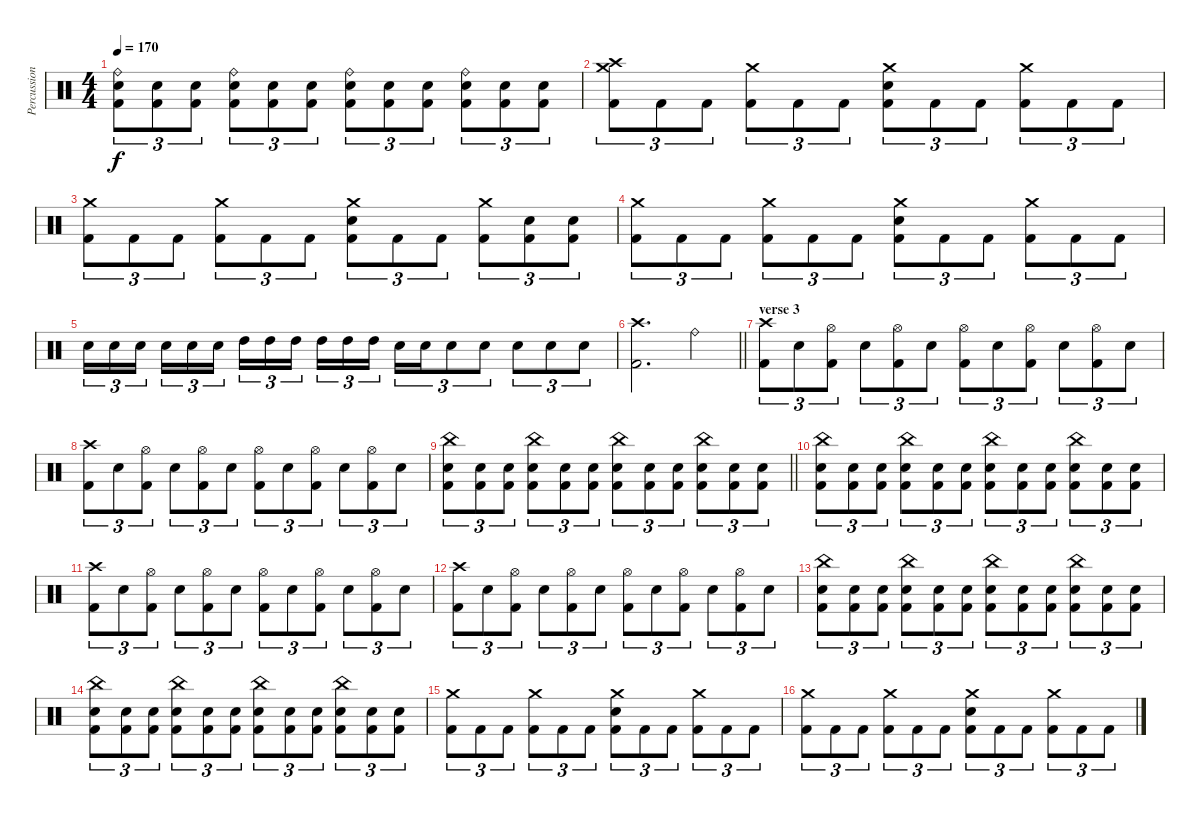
\track ("Percussion" "Percussion") {instrument percussion}
\staff {score}
\articulation defaults
\ts (4 4)
\tempo 170
\clef neutral
\ks c
("Ride (bell)" "Electric Snare (hit)" "Kick (hit) 2").8{tu (3 2) dy f} ("Electric Snare (hit)" "Kick (hit) 2").8{tu (3 2)} ("Electric Snare (hit)" "Kick (hit) 2").8{tu (3 2)} ("Ride (bell)" "Electric Snare (hit)" "Kick (hit) 2").8{tu (3 2)} ("Electric Snare (hit)" "Kick (hit) 2").8{tu (3 2)} ("Electric Snare (hit)" "Kick (hit) 2").8{tu (3 2)} ("Ride (bell)" "Electric Snare (hit)" "Kick (hit) 2").8{tu (3 2)} ("Electric Snare (hit)" "Kick (hit) 2").8{tu (3 2)} ("Electric Snare (hit)" "Kick (hit) 2").8{tu (3 2)} ("Ride (bell)" "Electric Snare (hit)" "Kick (hit) 2").8{tu (3 2)} ("Electric Snare (hit)" "Kick (hit) 2").8{tu (3 2)} ("Electric Snare (hit)" "Kick (hit) 2").8{tu (3 2)} |
("Crash high (hit)" "Crash medium (hit)" "Kick (hit) 2").8{tu (3 2)} "Kick (hit) 2".8{tu (3 2)} "Kick (hit) 2".8{tu (3 2)} ("Crash medium (hit)" "Kick (hit) 2").8{tu (3 2)} "Kick (hit) 2".8{tu (3 2)} "Kick (hit) 2".8{tu (3 2)} ("Crash medium (hit)" "Electric Snare (hit)" "Kick (hit) 2").8{tu (3 2)} "Kick (hit) 2".8{tu (3 2)} "Kick (hit) 2".8{tu (3 2)} ("Crash medium (hit)" "Kick (hit) 2").8{tu (3 2)} "Kick (hit) 2".8{tu (3 2)} "Kick (hit) 2".8{tu (3 2)} |
("Crash medium (hit)" "Kick (hit) 2").8{tu (3 2)} "Kick (hit) 2".8{tu (3 2)} "Kick (hit) 2".8{tu (3 2)} ("Crash medium (hit)" "Kick (hit) 2").8{tu (3 2)} "Kick (hit) 2".8{tu (3 2)} "Kick (hit) 2".8{tu (3 2)} ("Crash medium (hit)" "Electric Snare (hit)" "Kick (hit) 2").8{tu (3 2)} "Kick (hit) 2".8{tu (3 2)} "Kick (hit) 2".8{tu (3 2)} ("Crash medium (hit)" "Kick (hit) 2").8{tu (3 2)} ("Electric Snare (hit)" "Kick (hit) 2").8{tu (3 2)} ("Electric Snare (hit)" "Kick (hit) 2").8{tu (3 2)} |
("Crash medium (hit)" "Kick (hit) 2").8{tu (3 2)} "Kick (hit) 2".8{tu (3 2)} "Kick (hit) 2".8{tu (3 2)} ("Crash medium (hit)" "Kick (hit) 2").8{tu (3 2)} "Kick (hit) 2".8{tu (3 2)} "Kick (hit) 2".8{tu (3 2)} ("Crash medium (hit)" "Electric Snare (hit)" "Kick (hit) 2").8{tu (3 2)} "Kick (hit) 2".8{tu (3 2)} "Kick (hit) 2".8{tu (3 2)} ("Crash medium (hit)" "Kick (hit) 2").8{tu (3 2)} "Kick (hit) 2".8{tu (3 2)} "Kick (hit) 2".8{tu (3 2)} |
"Electric Snare (hit)".16{tu (3 2)} "Electric Snare (hit)".16{tu (3 2)} "Electric Snare (hit)".16{tu (3 2) beam splitsecondary} "Electric Snare (hit)".16{tu (3 2)} "Electric Snare (hit)".16{tu (3 2)} "Electric Snare (hit)".16{tu (3 2)} "High Tom (hit)".16{tu (3 2)} "High Tom (hit)".16{tu (3 2)} "High Tom (hit)".16{tu (3 2) beam splitsecondary} "High Tom (hit)".16{tu (3 2)} "High Tom (hit)".16{tu (3 2)} "High Tom (hit)".16{tu (3 2)} "Electric Snare (hit)".16{tu (3 2)} "Electric Snare (hit)".16{tu (3 2)} "Electric Snare (hit)".8{tu (3 2)} "Electric Snare (hit)".8{tu (3 2)} "Electric Snare (hit)".8{tu (3 2)} "Electric Snare (hit)".8{tu (3 2)} "Electric Snare (hit)".8{tu (3 2)} |
\barLineRight lightlight
("Crash high (hit)" "Kick (hit) 2").2{d} "Ride (bell)".4 |
\section ("" "verse 3")
("Crash high (hit)" "Kick (hit) 2").8{tu (3 2)} "Electric Snare (hit)".8{tu (3 2)} ("Hi-Hat (open)" "Kick (hit) 2").8{tu (3 2)} "Electric Snare (hit)".8{tu (3 2)} ("Hi-Hat (open)" "Kick (hit) 2").8{tu (3 2)} "Electric Snare (hit)".8{tu (3 2)} ("Hi-Hat (open)" "Kick (hit) 2").8{tu (3 2)} "Electric Snare (hit)".8{tu (3 2)} ("Hi-Hat (open)" "Kick (hit) 2").8{tu (3 2)} "Electric Snare (hit)".8{tu (3 2)} ("Hi-Hat (open)" "Kick (hit) 2").8{tu (3 2)} "Electric Snare (hit)".8{tu (3 2)} |
("Crash high (hit)" "Kick (hit) 2").8{tu (3 2)} "Electric Snare (hit)".8{tu (3 2)} ("Hi-Hat (open)" "Kick (hit) 2").8{tu (3 2)} "Electric Snare (hit)".8{tu (3 2)} ("Hi-Hat (open)" "Kick (hit) 2").8{tu (3 2)} "Electric Snare (hit)".8{tu (3 2)} ("Hi-Hat (open)" "Kick (hit) 2").8{tu (3 2)} "Electric Snare (hit)".8{tu (3 2)} ("Hi-Hat (open)" "Kick (hit) 2").8{tu (3 2)} "Electric Snare (hit)".8{tu (3 2)} ("Hi-Hat (open)" "Kick (hit) 2").8{tu (3 2)} "Electric Snare (hit)".8{tu (3 2)} |
\barLineRight lightlight
("China (hit)" "Electric Snare (hit)" "Kick (hit) 2").8{tu (3 2)} ("Electric Snare (hit)" "Kick (hit) 2").8{tu (3 2)} ("Electric Snare (hit)" "Kick (hit) 2").8{tu (3 2)} ("China (hit)" "Electric Snare (hit)" "Kick (hit) 2").8{tu (3 2)} ("Electric Snare (hit)" "Kick (hit) 2").8{tu (3 2)} ("Electric Snare (hit)" "Kick (hit) 2").8{tu (3 2)} ("China (hit)" "Electric Snare (hit)" "Kick (hit) 2").8{tu (3 2)} ("Electric Snare (hit)" "Kick (hit) 2").8{tu (3 2)} ("Electric Snare (hit)" "Kick (hit) 2").8{tu (3 2)} ("China (hit)" "Electric Snare (hit)" "Kick (hit) 2").8{tu (3 2)} ("Electric Snare (hit)" "Kick (hit) 2").8{tu (3 2)} ("Electric Snare (hit)" "Kick (hit) 2").8{tu (3 2)} |
("China (hit)" "Electric Snare (hit)" "Kick (hit) 2").8{tu (3 2)} ("Electric Snare (hit)" "Kick (hit) 2").8{tu (3 2)} ("Electric Snare (hit)" "Kick (hit) 2").8{tu (3 2)} ("China (hit)" "Electric Snare (hit)" "Kick (hit) 2").8{tu (3 2)} ("Electric Snare (hit)" "Kick (hit) 2").8{tu (3 2)} ("Electric Snare (hit)" "Kick (hit) 2").8{tu (3 2)} ("China (hit)" "Electric Snare (hit)" "Kick (hit) 2").8{tu (3 2)} ("Electric Snare (hit)" "Kick (hit) 2").8{tu (3 2)} ("Electric Snare (hit)" "Kick (hit) 2").8{tu (3 2)} ("China (hit)" "Electric Snare (hit)" "Kick (hit) 2").8{tu (3 2)} ("Electric Snare (hit)" "Kick (hit) 2").8{tu (3 2)} ("Electric Snare (hit)" "Kick (hit) 2").8{tu (3 2)} |
("Crash high (hit)" "Kick (hit) 2").8{tu (3 2)} "Electric Snare (hit)".8{tu (3 2)} ("Hi-Hat (open)" "Kick (hit) 2").8{tu (3 2)} "Electric Snare (hit)".8{tu (3 2)} ("Hi-Hat (open)" "Kick (hit) 2").8{tu (3 2)} "Electric Snare (hit)".8{tu (3 2)} ("Hi-Hat (open)" "Kick (hit) 2").8{tu (3 2)} "Electric Snare (hit)".8{tu (3 2)} ("Hi-Hat (open)" "Kick (hit) 2").8{tu (3 2)} "Electric Snare (hit)".8{tu (3 2)} ("Hi-Hat (open)" "Kick (hit) 2").8{tu (3 2)} "Electric Snare (hit)".8{tu (3 2)} |
("Crash high (hit)" "Kick (hit) 2").8{tu (3 2)} "Electric Snare (hit)".8{tu (3 2)} ("Hi-Hat (open)" "Kick (hit) 2").8{tu (3 2)} "Electric Snare (hit)".8{tu (3 2)} ("Hi-Hat (open)" "Kick (hit) 2").8{tu (3 2)} "Electric Snare (hit)".8{tu (3 2)} ("Hi-Hat (open)" "Kick (hit) 2").8{tu (3 2)} "Electric Snare (hit)".8{tu (3 2)} ("Hi-Hat (open)" "Kick (hit) 2").8{tu (3 2)} "Electric Snare (hit)".8{tu (3 2)} ("Hi-Hat (open)" "Kick (hit) 2").8{tu (3 2)} "Electric Snare (hit)".8{tu (3 2)} |
("China (hit)" "Electric Snare (hit)" "Kick (hit) 2").8{tu (3 2)} ("Electric Snare (hit)" "Kick (hit) 2").8{tu (3 2)} ("Electric Snare (hit)" "Kick (hit) 2").8{tu (3 2)} ("China (hit)" "Electric Snare (hit)" "Kick (hit) 2").8{tu (3 2)} ("Electric Snare (hit)" "Kick (hit) 2").8{tu (3 2)} ("Electric Snare (hit)" "Kick (hit) 2").8{tu (3 2)} ("China (hit)" "Electric Snare (hit)" "Kick (hit) 2").8{tu (3 2)} ("Electric Snare (hit)" "Kick (hit) 2").8{tu (3 2)} ("Electric Snare (hit)" "Kick (hit) 2").8{tu (3 2)} ("China (hit)" "Electric Snare (hit)" "Kick (hit) 2").8{tu (3 2)} ("Electric Snare (hit)" "Kick (hit) 2").8{tu (3 2)} ("Electric Snare (hit)" "Kick (hit) 2").8{tu (3 2)} |
("China (hit)" "Electric Snare (hit)" "Kick (hit) 2").8{tu (3 2)} ("Electric Snare (hit)" "Kick (hit) 2").8{tu (3 2)} ("Electric Snare (hit)" "Kick (hit) 2").8{tu (3 2)} ("China (hit)" "Electric Snare (hit)" "Kick (hit) 2").8{tu (3 2)} ("Electric Snare (hit)" "Kick (hit) 2").8{tu (3 2)} ("Electric Snare (hit)" "Kick (hit) 2").8{tu (3 2)} ("China (hit)" "Electric Snare (hit)" "Kick (hit) 2").8{tu (3 2)} ("Electric Snare (hit)" "Kick (hit) 2").8{tu (3 2)} ("Electric Snare (hit)" "Kick (hit) 2").8{tu (3 2)} ("China (hit)" "Electric Snare (hit)" "Kick (hit) 2").8{tu (3 2)} ("Electric Snare (hit)" "Kick (hit) 2").8{tu (3 2)} ("Electric Snare (hit)" "Kick (hit) 2").8{tu (3 2)} |
("Crash medium (hit)" "Kick (hit) 2").8{tu (3 2)} "Kick (hit) 2".8{tu (3 2)} "Kick (hit) 2".8{tu (3 2)} ("Crash medium (hit)" "Kick (hit) 2").8{tu (3 2)} "Kick (hit) 2".8{tu (3 2)} "Kick (hit) 2".8{tu (3 2)} ("Crash medium (hit)" "Electric Snare (hit)" "Kick (hit) 2").8{tu (3 2)} "Kick (hit) 2".8{tu (3 2)} "Kick (hit) 2".8{tu (3 2)} ("Crash medium (hit)" "Kick (hit) 2").8{tu (3 2)} "Kick (hit) 2".8{tu (3 2)} "Kick (hit) 2".8{tu (3 2)} |
("Crash medium (hit)" "Kick (hit) 2").8{tu (3 2)} "Kick (hit) 2".8{tu (3 2)} "Kick (hit) 2".8{tu (3 2)} ("Crash medium (hit)" "Kick (hit) 2").8{tu (3 2)} "Kick (hit) 2".8{tu (3 2)} "Kick (hit) 2".8{tu (3 2)} ("Crash medium (hit)" "Electric Snare (hit)" "Kick (hit) 2").8{tu (3 2)} "Kick (hit) 2".8{tu (3 2)} "Kick (hit) 2".8{tu (3 2)} ("Crash medium (hit)" "Kick (hit) 2").8{tu (3 2)} "Kick (hit) 2".8{tu (3 2)} "Kick (hit) 2".8{tu (3 2)}
